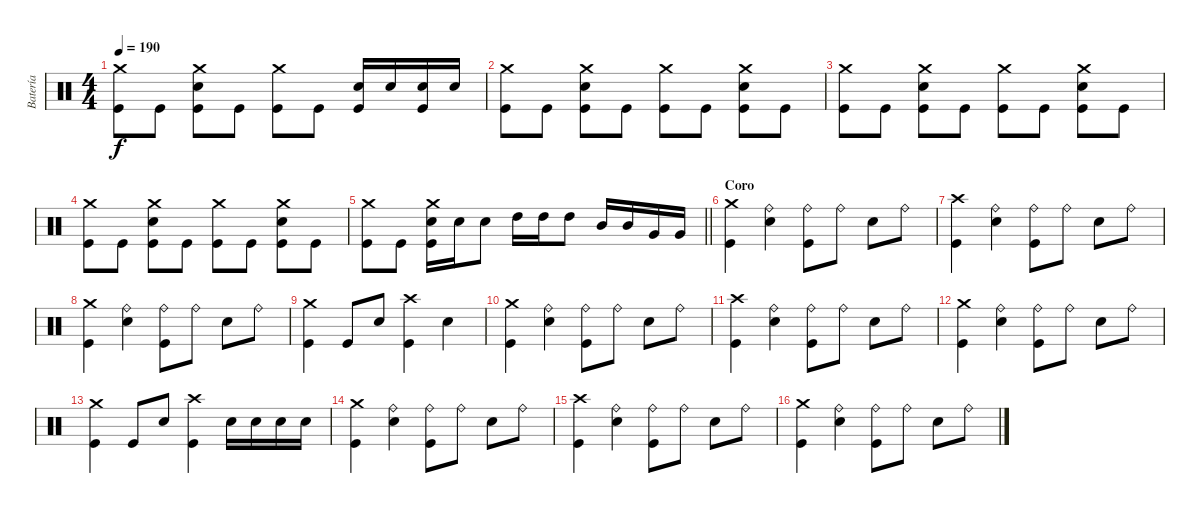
\track ("Batería" "Batería") {instrument percussion}
\staff {score}
\articulation defaults
\ts (4 4)
\tempo 190
\clef neutral
\ks c
("Crash medium (hit)" "Kick (hit)").8{dy f} "Kick (hit)".8 ("Crash medium (hit)" "Electric Snare (hit)" "Kick (hit)").8 "Kick (hit)".8 ("Crash medium (hit)" "Kick (hit)").8 "Kick (hit)".8 ("Electric Snare (hit)" "Kick (hit)").16 "Electric Snare (hit)".16 ("Electric Snare (hit)" "Kick (hit)").16 "Electric Snare (hit)".16 |
("Crash medium (hit)" "Kick (hit)").8 "Kick (hit)".8 ("Crash medium (hit)" "Electric Snare (hit)" "Kick (hit)").8 "Kick (hit)".8 ("Crash medium (hit)" "Kick (hit)").8 "Kick (hit)".8 ("Crash medium (hit)" "Electric Snare (hit)" "Kick (hit)").8 "Kick (hit)".8 |
("Crash medium (hit)" "Kick (hit)").8 "Kick (hit)".8 ("Crash medium (hit)" "Electric Snare (hit)" "Kick (hit)").8 "Kick (hit)".8 ("Crash medium (hit)" "Kick (hit)").8 "Kick (hit)".8 ("Crash medium (hit)" "Electric Snare (hit)" "Kick (hit)").8 "Kick (hit)".8 |
("Crash medium (hit)" "Kick (hit)").8 "Kick (hit)".8 ("Crash medium (hit)" "Electric Snare (hit)" "Kick (hit)").8 "Kick (hit)".8 ("Crash medium (hit)" "Kick (hit)").8 "Kick (hit)".8 ("Crash medium (hit)" "Electric Snare (hit)" "Kick (hit)").8 "Kick (hit)".8 |
\barLineRight lightlight
("Crash medium (hit)" "Kick (hit)").8 "Kick (hit)".8 ("Crash medium (hit)" "Electric Snare (hit)" "Kick (hit)").16 "Electric Snare (hit)".16 "Electric Snare (hit)".8 "High Tom (hit)".16 "High Tom (hit)".16 "High Tom (hit)".8 "Mid Tom (hit)".16 "Mid Tom (hit)".16 "Very Low Tom (hit)".16 "Very Low Tom (hit)".16 |
\section ("" "Coro")
("Crash medium (hit)" "Kick (hit)").4 ("Ride (bell)" "Electric Snare (hit)").4 ("Ride (bell)" "Kick (hit)").8 "Ride (bell)".8 "Electric Snare (hit)".8 "Ride (bell)".8 |
("Crash high (hit)" "Kick (hit)").4 ("Ride (bell)" "Electric Snare (hit)").4 ("Ride (bell)" "Kick (hit)").8 "Ride (bell)".8 "Electric Snare (hit)".8 "Ride (bell)".8 |
("Crash medium (hit)" "Kick (hit)").4 ("Ride (bell)" "Electric Snare (hit)").4 ("Ride (bell)" "Kick (hit)").8 "Ride (bell)".8 "Electric Snare (hit)".8 "Ride (bell)".8 |
("Crash medium (hit)" "Kick (hit)").4 "Kick (hit)".8 "Electric Snare (hit)".8 ("Crash high (hit)" "Kick (hit)").4 "Electric Snare (hit)".4 |
("Crash medium (hit)" "Kick (hit)").4 ("Ride (bell)" "Electric Snare (hit)").4 ("Ride (bell)" "Kick (hit)").8 "Ride (bell)".8 "Electric Snare (hit)".8 "Ride (bell)".8 |
("Crash high (hit)" "Kick (hit)").4 ("Ride (bell)" "Electric Snare (hit)").4 ("Ride (bell)" "Kick (hit)").8 "Ride (bell)".8 "Electric Snare (hit)".8 "Ride (bell)".8 |
("Crash medium (hit)" "Kick (hit)").4 ("Ride (bell)" "Electric Snare (hit)").4 ("Ride (bell)" "Kick (hit)").8 "Ride (bell)".8 "Electric Snare (hit)".8 "Ride (bell)".8 |
("Crash medium (hit)" "Kick (hit)").4 "Kick (hit)".8 "Electric Snare (hit)".8 ("Crash high (hit)" "Kick (hit)").4 "Electric Snare (hit)".16 "Electric Snare (hit)".16 "Electric Snare (hit)".16 "Electric Snare (hit)".16 |
("Crash medium (hit)" "Kick (hit)").4 ("Ride (bell)" "Electric Snare (hit)").4 ("Ride (bell)" "Kick (hit)").8 "Ride (bell)".8 "Electric Snare (hit)".8 "Ride (bell)".8 |
("Crash high (hit)" "Kick (hit)").4 ("Ride (bell)" "Electric Snare (hit)").4 ("Ride (bell)" "Kick (hit)").8 "Ride (bell)".8 "Electric Snare (hit)".8 "Ride (bell)".8 |
("Crash medium (hit)" "Kick (hit)").4 ("Ride (bell)" "Electric Snare (hit)").4 ("Ride (bell)" "Kick (hit)").8 "Ride (bell)".8 "Electric Snare (hit)".8 "Ride (bell)".8
